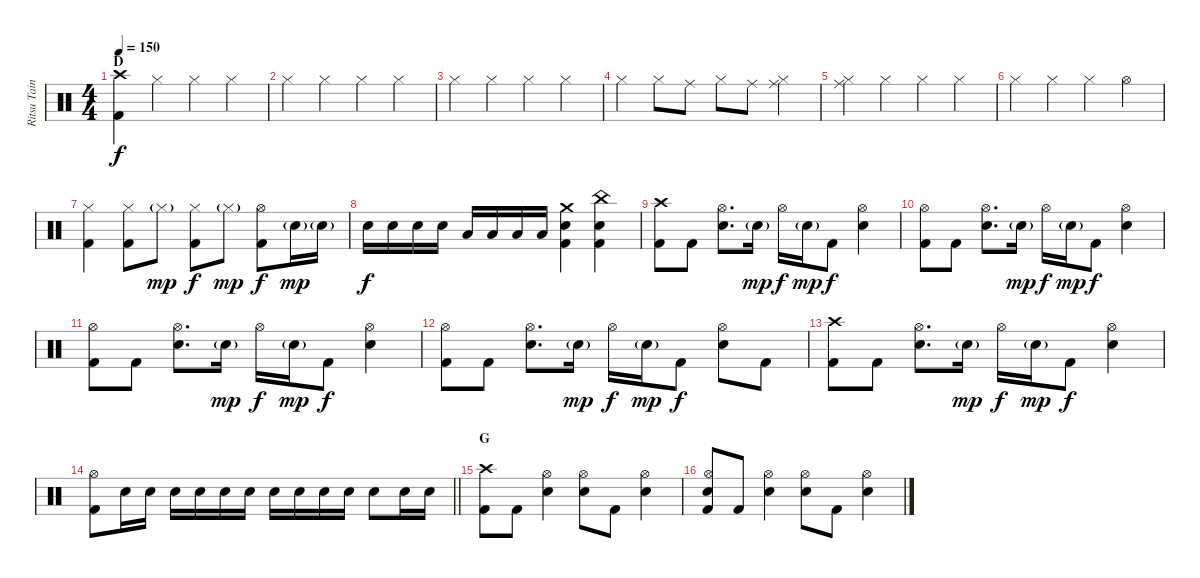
\track ("Ritsu Tainaka" "Ritsu Tain") {instrument percussion}
\staff {score}
\articulation defaults
\ts (4 4)
\section ("" "D")
\tempo 150
\clef neutral
\ks c
("Crash high (hit)" "Kick (hit) 2").4{dy f} "Hi-Hat (closed)".4 "Hi-Hat (closed)".4 "Hi-Hat (closed)".4 |
"Hi-Hat (closed)".4 "Hi-Hat (closed)".4 "Hi-Hat (closed)".4 "Hi-Hat (closed)".4 |
"Hi-Hat (closed)".4 "Hi-Hat (closed)".4 "Hi-Hat (closed)".4 "Hi-Hat (closed)".4 |
"Hi-Hat (closed)".4 "Hi-Hat (closed)".8 "Ride (middle)".8 "Hi-Hat (closed)".8 "Ride (middle)".8 ("Ride (middle)" "Hi-Hat (closed)").4 |
("Ride (middle)" "Hi-Hat (closed)").4 "Hi-Hat (closed)".4 "Hi-Hat (closed)".4 "Hi-Hat (closed)".4 |
"Hi-Hat (closed)".4 "Hi-Hat (closed)".4 "Hi-Hat (closed)".4 "Hi-Hat (open)".4 |
("Hi-Hat (closed)" "Kick (hit) 2").4 ("Hi-Hat (closed)" "Kick (hit) 2").8 "Hi-Hat (closed)"{g}.8{dy mp} ("Hi-Hat (closed)" "Kick (hit) 2").8{dy f} "Hi-Hat (closed)"{g}.8{dy mp} ("Hi-Hat (open)" "Kick (hit) 2").8{dy f} "Electric Snare (hit)"{g}.16{dy mp} "Electric Snare (hit)"{g}.16 |
"Electric Snare (hit)".16{dy f} "Electric Snare (hit)".16 "Electric Snare (hit)".16 "Electric Snare (hit)".16 "Low Tom (hit)".16 "Low Tom (hit)".16 "Low Floor Tom (hit)".16 "Low Floor Tom (hit)".16 ("Crash medium (hit)" "Electric Snare (hit)" "Kick (hit) 2").4 ("China (hit)" "Electric Snare (hit)" "Kick (hit) 2").4 |
("Crash high (hit)" "Kick (hit) 2").8 "Kick (hit) 2".8 ("Hi-Hat (open)" "Electric Snare (hit)").8{d} "Electric Snare (hit)"{g}.16{dy mp} "Hi-Hat (open)".16{dy f} "Electric Snare (hit)"{g}.16{dy mp} "Kick (hit) 2".8{dy f} ("Hi-Hat (open)" "Electric Snare (hit)").4 |
("Hi-Hat (open)" "Kick (hit) 2").8 "Kick (hit) 2".8 ("Hi-Hat (open)" "Electric Snare (hit)").8{d} "Electric Snare (hit)"{g}.16{dy mp} "Hi-Hat (open)".16{dy f} "Electric Snare (hit)"{g}.16{dy mp} "Kick (hit) 2".8{dy f} ("Hi-Hat (open)" "Electric Snare (hit)").4 |
("Hi-Hat (open)" "Kick (hit) 2").8 "Kick (hit) 2".8 ("Hi-Hat (open)" "Electric Snare (hit)").8{d} "Electric Snare (hit)"{g}.16{dy mp} "Hi-Hat (open)".16{dy f} "Electric Snare (hit)"{g}.16{dy mp} "Kick (hit) 2".8{dy f} ("Hi-Hat (open)" "Electric Snare (hit)").4 |
("Hi-Hat (open)" "Kick (hit) 2").8 "Kick (hit) 2".8 ("Hi-Hat (open)" "Electric Snare (hit)").8{d} "Electric Snare (hit)"{g}.16{dy mp} "Hi-Hat (open)".16{dy f} "Electric Snare (hit)"{g}.16{dy mp} "Kick (hit) 2".8{dy f} ("Hi-Hat (open)" "Electric Snare (hit)").8 "Kick (hit) 2".8 |
("Crash high (hit)" "Kick (hit) 2").8 "Kick (hit) 2".8 ("Hi-Hat (open)" "Electric Snare (hit)").8{d} "Electric Snare (hit)"{g}.16{dy mp} "Hi-Hat (open)".16{dy f} "Electric Snare (hit)"{g}.16{dy mp} "Kick (hit) 2".8{dy f} ("Hi-Hat (open)" "Electric Snare (hit)").4 |
\barLineRight lightlight
("Hi-Hat (open)" "Kick (hit) 2").8 "Electric Snare (hit)".16 "Electric Snare (hit)".16 "Electric Snare (hit)".16 "Electric Snare (hit)".16 "Electric Snare (hit)".16 "Electric Snare (hit)".16 "Electric Snare (hit)".16 "Electric Snare (hit)".16 "Electric Snare (hit)".16 "Electric Snare (hit)".16 "Electric Snare (hit)".8 "Electric Snare (hit)".16 "Electric Snare (hit)".16 |
\section ("" "G")
("Crash high (hit)" "Kick (hit) 2").8 "Kick (hit) 2".8 ("Hi-Hat (open)" "Electric Snare (hit)").4 ("Hi-Hat (open)" "Electric Snare (hit)").8 "Kick (hit) 2".8 ("Hi-Hat (open)" "Electric Snare (hit)").4 |
("Hi-Hat (open)" "Electric Snare (hit)" "Kick (hit) 2").8 "Kick (hit) 2".8 ("Hi-Hat (open)" "Electric Snare (hit)").4 ("Hi-Hat (open)" "Electric Snare (hit)").8 "Kick (hit) 2".8 ("Hi-Hat (open)" "Electric Snare (hit)").4
